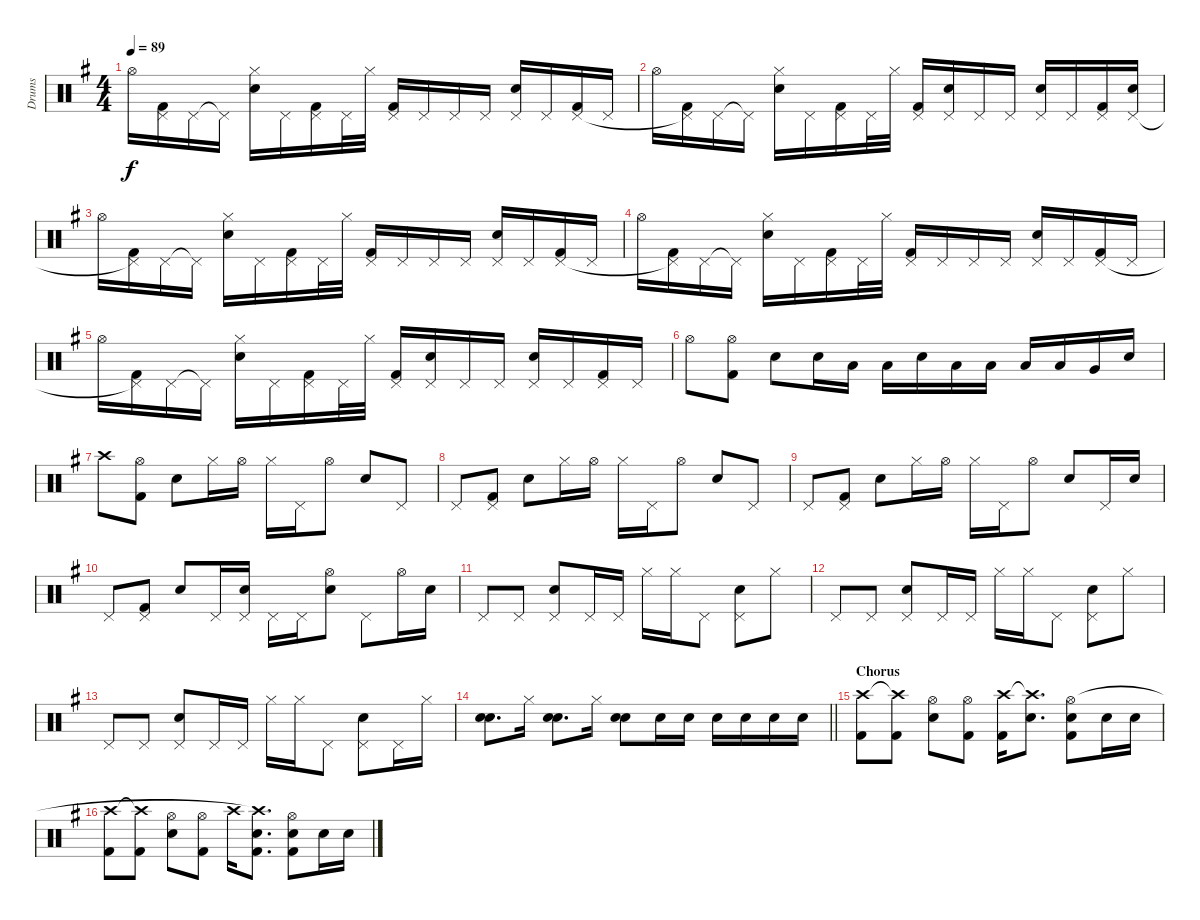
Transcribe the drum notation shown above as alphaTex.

\track ("Drums" "Drums") {instrument percussion}
\staff {score}
\articulation defaults
\ts (4 4)
\tempo 89
\clef neutral
\ks g "Hi-Hat (open)".16{dy f}
("Kick (hit) 2" "Pedal Hi-Hat (hit)"{t}).16 "Pedal Hi-Hat (hit)".16 "Pedal Hi-Hat (hit)"{t}.16 ("Electric Snare (hit)" "Hi-Hat (closed)").16 "Pedal Hi-Hat (hit)".16 ("Kick (hit) 2" "Pedal Hi-Hat (hit)").16 "Pedal Hi-Hat (hit)".32 "Hi-Hat (closed)".32 ("Kick (hit) 2" "Pedal Hi-Hat (hit)").16 "Pedal Hi-Hat (hit)".16 "Pedal Hi-Hat (hit)".16 "Pedal Hi-Hat (hit)".16 ("Electric Snare (hit)" "Pedal Hi-Hat (hit)").16 "Pedal Hi-Hat (hit)".16 ("Kick (hit) 2" "Pedal Hi-Hat (hit)").16 "Pedal Hi-Hat (hit)".16 |
"Hi-Hat (open)".16 ("Kick (hit) 2" "Pedal Hi-Hat (hit)"{t}).16 "Pedal Hi-Hat (hit)".16 "Pedal Hi-Hat (hit)"{t}.16 ("Electric Snare (hit)" "Hi-Hat (closed)").16 "Pedal Hi-Hat (hit)".16 ("Kick (hit) 2" "Pedal Hi-Hat (hit)").16 "Pedal Hi-Hat (hit)".32 "Hi-Hat (closed)".32 ("Kick (hit) 2" "Pedal Hi-Hat (hit)").16 ("Electric Snare (hit)" "Pedal Hi-Hat (hit)").16 "Pedal Hi-Hat (hit)".16 "Pedal Hi-Hat (hit)".16 ("Electric Snare (hit)" "Pedal Hi-Hat (hit)").16 "Pedal Hi-Hat (hit)".16 ("Kick (hit) 2" "Pedal Hi-Hat (hit)").16 ("Electric Snare (hit)" "Pedal Hi-Hat (hit)").16 |
"Hi-Hat (open)".16 ("Kick (hit) 2" "Pedal Hi-Hat (hit)"{t}).16 "Pedal Hi-Hat (hit)".16 "Pedal Hi-Hat (hit)"{t}.16 ("Electric Snare (hit)" "Hi-Hat (closed)").16 "Pedal Hi-Hat (hit)".16 ("Kick (hit) 2" "Pedal Hi-Hat (hit)").16 "Pedal Hi-Hat (hit)".32 "Hi-Hat (closed)".32 ("Kick (hit) 2" "Pedal Hi-Hat (hit)").16 "Pedal Hi-Hat (hit)".16 "Pedal Hi-Hat (hit)".16 "Pedal Hi-Hat (hit)".16 ("Electric Snare (hit)" "Pedal Hi-Hat (hit)").16 "Pedal Hi-Hat (hit)".16 ("Kick (hit) 2" "Pedal Hi-Hat (hit)").16 "Pedal Hi-Hat (hit)".16 |
"Hi-Hat (open)".16 ("Kick (hit) 2" "Pedal Hi-Hat (hit)"{t}).16 "Pedal Hi-Hat (hit)".16 "Pedal Hi-Hat (hit)"{t}.16 ("Electric Snare (hit)" "Hi-Hat (closed)").16 "Pedal Hi-Hat (hit)".16 ("Kick (hit) 2" "Pedal Hi-Hat (hit)").16 "Pedal Hi-Hat (hit)".32 "Hi-Hat (closed)".32 ("Kick (hit) 2" "Pedal Hi-Hat (hit)").16 "Pedal Hi-Hat (hit)".16 "Pedal Hi-Hat (hit)".16 "Pedal Hi-Hat (hit)".16 ("Electric Snare (hit)" "Pedal Hi-Hat (hit)").16 "Pedal Hi-Hat (hit)".16 ("Kick (hit) 2" "Pedal Hi-Hat (hit)").16 "Pedal Hi-Hat (hit)".16 |
"Hi-Hat (open)".16 ("Kick (hit) 2" "Pedal Hi-Hat (hit)"{t}).16 "Pedal Hi-Hat (hit)".16 "Pedal Hi-Hat (hit)"{t}.16 ("Electric Snare (hit)" "Hi-Hat (closed)").16 "Pedal Hi-Hat (hit)".16 ("Kick (hit) 2" "Pedal Hi-Hat (hit)").16 "Pedal Hi-Hat (hit)".32 "Hi-Hat (closed)".32 ("Kick (hit) 2" "Pedal Hi-Hat (hit)").16 ("Electric Snare (hit)" "Pedal Hi-Hat (hit)").16 "Pedal Hi-Hat (hit)".16 "Pedal Hi-Hat (hit)".16 ("Electric Snare (hit)" "Pedal Hi-Hat (hit)").16 "Pedal Hi-Hat (hit)".16 ("Kick (hit) 2" "Pedal Hi-Hat (hit)").16 "Pedal Hi-Hat (hit)".16 |
"Hi-Hat (open)".8 ("Kick (hit) 2" "Hi-Hat (open)").8 "Electric Snare (hit)".8 "Electric Snare (hit)".16 "Low Tom (hit)".16 "Low Tom (hit)".16 "Electric Snare (hit)".16 "Low Tom (hit)".16 "Low Tom (hit)".16 "Low Floor Tom (hit)".16 "Low Floor Tom (hit)".16 "Very Low Tom (hit)".16 "Electric Snare (hit)".16 |
"Crash high (hit)".8 ("Kick (hit) 2" "Hi-Hat (open)").8 "Electric Snare (hit)".8 "Hi-Hat (closed)".16 "Hi-Hat (open)".16 "Hi-Hat (closed)".16 "Pedal Hi-Hat (hit)".16 "Hi-Hat (open)".8 "Electric Snare (hit)".8 "Pedal Hi-Hat (hit)".8 |
"Pedal Hi-Hat (hit)".8 ("Kick (hit) 2" "Pedal Hi-Hat (hit)").8 "Electric Snare (hit)".8 "Hi-Hat (closed)".16 "Hi-Hat (open)".16 "Hi-Hat (closed)".16 "Pedal Hi-Hat (hit)".16 "Hi-Hat (open)".8 "Electric Snare (hit)".8 "Pedal Hi-Hat (hit)".8 |
"Pedal Hi-Hat (hit)".8 ("Kick (hit) 2" "Pedal Hi-Hat (hit)").8 "Electric Snare (hit)".8 "Hi-Hat (closed)".16 "Hi-Hat (open)".16 "Hi-Hat (closed)".16 "Pedal Hi-Hat (hit)".16 "Hi-Hat (open)".8 "Electric Snare (hit)".8 "Pedal Hi-Hat (hit)".16 "Electric Snare (hit)".16 |
"Pedal Hi-Hat (hit)".8 ("Kick (hit) 2" "Pedal Hi-Hat (hit)").8 "Electric Snare (hit)".8 "Pedal Hi-Hat (hit)".16 ("Electric Snare (hit)" "Pedal Hi-Hat (hit)").16 "Pedal Hi-Hat (hit)".16 "Pedal Hi-Hat (hit)".16 ("Electric Snare (hit)" "Hi-Hat (open)").8 "Pedal Hi-Hat (hit)".8 "Hi-Hat (open)".16 "Electric Snare (hit)".16 |
"Pedal Hi-Hat (hit)".8 "Pedal Hi-Hat (hit)".8 ("Electric Snare (hit)" "Pedal Hi-Hat (hit)").8 "Pedal Hi-Hat (hit)".16 "Pedal Hi-Hat (hit)".16 "Hi-Hat (closed)".16 "Hi-Hat (closed)".16 "Pedal Hi-Hat (hit)".8 ("Electric Snare (hit)" "Pedal Hi-Hat (hit)").8 "Hi-Hat (closed)".8 |
"Pedal Hi-Hat (hit)".8 "Pedal Hi-Hat (hit)".8 ("Electric Snare (hit)" "Pedal Hi-Hat (hit)").8 "Pedal Hi-Hat (hit)".16 "Pedal Hi-Hat (hit)".16 "Hi-Hat (closed)".16 "Hi-Hat (closed)".16 "Pedal Hi-Hat (hit)".8 ("Electric Snare (hit)" "Pedal Hi-Hat (hit)").8 "Hi-Hat (closed)".8 |
"Pedal Hi-Hat (hit)".8 "Pedal Hi-Hat (hit)".8 ("Electric Snare (hit)" "Pedal Hi-Hat (hit)").8 "Pedal Hi-Hat (hit)".16 "Pedal Hi-Hat (hit)".16 "Hi-Hat (closed)".16 "Hi-Hat (closed)".16 "Pedal Hi-Hat (hit)".8 ("Electric Snare (hit)" "Pedal Hi-Hat (hit)").8 "Pedal Hi-Hat (hit)".16 "Hi-Hat (closed)".16 |
\barLineRight lightlight
("Snare (hit) 2" "Electric Snare (hit)").8{d} "Hi-Hat (closed)".16 ("Snare (hit) 2" "Electric Snare (hit)").8{d} "Hi-Hat (closed)".16 ("Snare (hit) 2" "Electric Snare (hit)").8 "Electric Snare (hit)".16 "Electric Snare (hit)".16 "Electric Snare (hit)".16 "Electric Snare (hit)".16 "Electric Snare (hit)".16 "Electric Snare (hit)".16 |
\section ("" "Chorus")
("Kick (hit) 2" "Crash high (hit)").8 ("Kick (hit) 2" "Crash high (hit)"{t}).8 ("Electric Snare (hit)" "Hi-Hat (open)").8 ("Kick (hit) 2" "Hi-Hat (open)").8 ("Kick (hit) 2" "Crash high (hit)").16 ("Electric Snare (hit)" "Crash high (hit)"{t}).8{d} ("Kick (hit) 2" "Electric Snare (hit)" "Hi-Hat (open)").8 "Electric Snare (hit)".16 "Electric Snare (hit)".16 |
("Kick (hit) 2" "Crash high (hit)").8 ("Kick (hit) 2" "Crash high (hit)"{t}).8 ("Electric Snare (hit)" "Hi-Hat (open)").8 ("Kick (hit) 2" "Hi-Hat (open)").8 "Crash high (hit)".16 ("Kick (hit) 2" "Electric Snare (hit)" "Crash high (hit)"{t}).8{d} ("Kick (hit) 2" "Electric Snare (hit)" "Hi-Hat (open)").8 "Electric Snare (hit)".16 "Electric Snare (hit)".16
